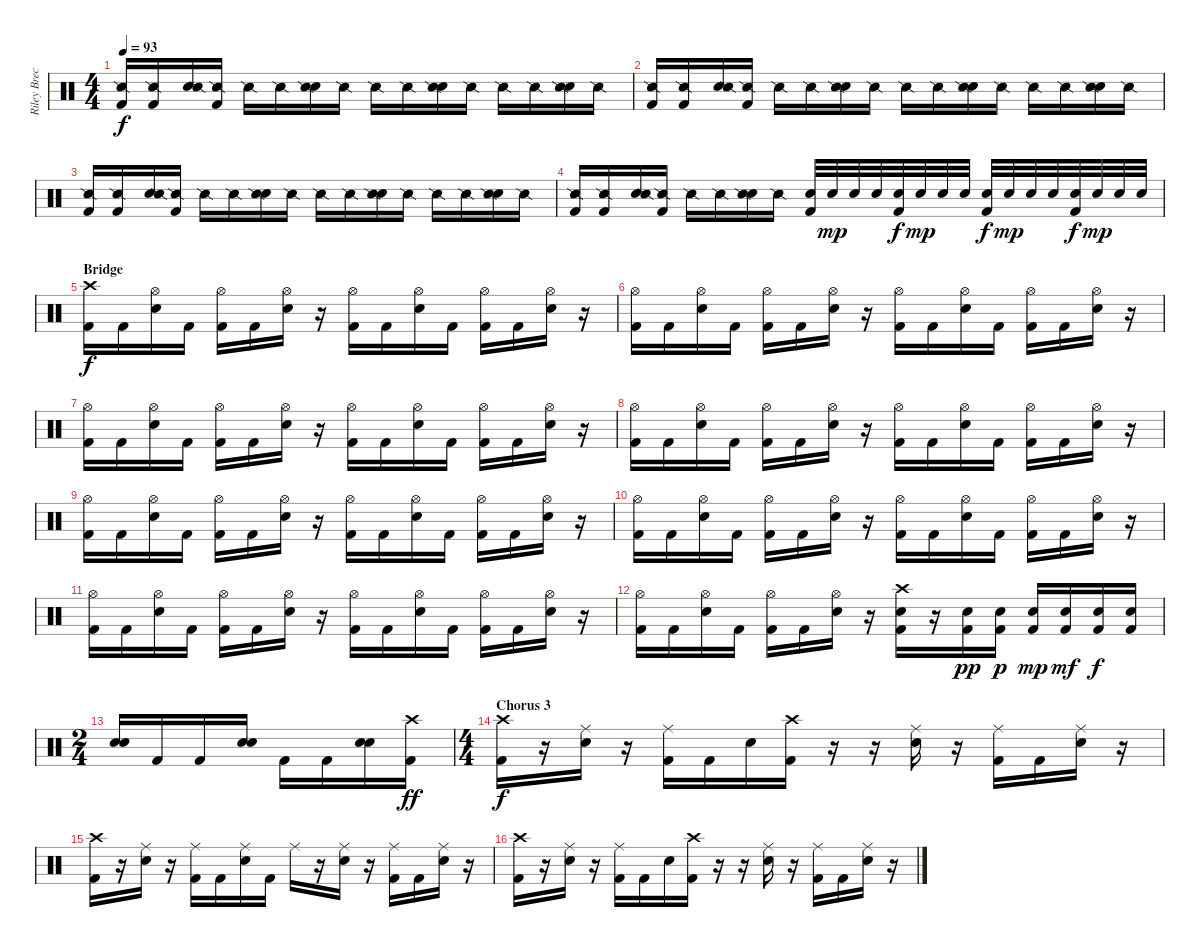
\track ("Riley Breckenridge" "Riley Brec") {instrument percussion}
\staff {score}
\articulation defaults
\ts (4 4)
\tempo 93
\clef neutral
\ks c
("Kick (hit) 2" "Snare (side stick) 2").16{dy f} ("Kick (hit) 2" "Snare (side stick) 2").16 ("Electric Snare (hit)" "Snare (side stick) 2").16 ("Kick (hit) 2" "Snare (side stick) 2").16 "Snare (side stick) 2".16 "Snare (side stick) 2".16 ("Electric Snare (hit)" "Snare (side stick) 2").16 "Snare (side stick) 2".16 "Snare (side stick) 2".16 "Snare (side stick) 2".16 ("Electric Snare (hit)" "Snare (side stick) 2").16 "Snare (side stick) 2".16 "Snare (side stick) 2".16 "Snare (side stick) 2".16 ("Electric Snare (hit)" "Snare (side stick) 2").16 "Snare (side stick) 2".16 |
("Kick (hit) 2" "Snare (side stick) 2").16 ("Kick (hit) 2" "Snare (side stick) 2").16 ("Electric Snare (hit)" "Snare (side stick) 2").16 ("Kick (hit) 2" "Snare (side stick) 2").16 "Snare (side stick) 2".16 "Snare (side stick) 2".16 ("Electric Snare (hit)" "Snare (side stick) 2").16 "Snare (side stick) 2".16 "Snare (side stick) 2".16 "Snare (side stick) 2".16 ("Electric Snare (hit)" "Snare (side stick) 2").16 "Snare (side stick) 2".16 "Snare (side stick) 2".16 "Snare (side stick) 2".16 ("Electric Snare (hit)" "Snare (side stick) 2").16 "Snare (side stick) 2".16 |
("Kick (hit) 2" "Snare (side stick) 2").16 ("Kick (hit) 2" "Snare (side stick) 2").16 ("Electric Snare (hit)" "Snare (side stick) 2").16 ("Kick (hit) 2" "Snare (side stick) 2").16 "Snare (side stick) 2".16 "Snare (side stick) 2".16 ("Electric Snare (hit)" "Snare (side stick) 2").16 "Snare (side stick) 2".16 "Snare (side stick) 2".16 "Snare (side stick) 2".16 ("Electric Snare (hit)" "Snare (side stick) 2").16 "Snare (side stick) 2".16 "Snare (side stick) 2".16 "Snare (side stick) 2".16 ("Electric Snare (hit)" "Snare (side stick) 2").16 "Snare (side stick) 2".16 |
("Kick (hit) 2" "Snare (side stick) 2").16 ("Kick (hit) 2" "Snare (side stick) 2").16 ("Electric Snare (hit)" "Snare (side stick) 2").16 ("Kick (hit) 2" "Snare (side stick) 2").16 "Snare (side stick) 2".16 "Snare (side stick) 2".16 ("Electric Snare (hit)" "Snare (side stick) 2").16 "Snare (side stick) 2".16 ("Electric Snare (hit)" "Kick (hit) 2").32 "Electric Snare (hit)".32{dy mp} "Electric Snare (hit)".32 "Electric Snare (hit)".32 ("Electric Snare (hit)" "Kick (hit) 2").32{dy f} "Electric Snare (hit)".32{dy mp} "Electric Snare (hit)".32 "Electric Snare (hit)".32 ("Electric Snare (hit)" "Kick (hit) 2").32{dy f} "Electric Snare (hit)".32{dy mp} "Electric Snare (hit)".32 "Electric Snare (hit)".32 ("Electric Snare (hit)" "Kick (hit) 2").32{dy f} "Electric Snare (hit)".32{dy mp} "Electric Snare (hit)".32 "Electric Snare (hit)".32 |
\section ("" "Bridge")
("Kick (hit) 2" "Crash high (hit)").16{dy f} "Kick (hit) 2".16 ("Electric Snare (hit)" "Hi-Hat (open)").16 "Kick (hit) 2".16 ("Kick (hit) 2" "Hi-Hat (open)").16 "Kick (hit) 2".16 ("Electric Snare (hit)" "Hi-Hat (open)").16 r.16 ("Kick (hit) 2" "Hi-Hat (open)").16 "Kick (hit) 2".16 ("Electric Snare (hit)" "Hi-Hat (open)").16 "Kick (hit) 2".16 ("Kick (hit) 2" "Hi-Hat (open)").16 "Kick (hit) 2".16 ("Electric Snare (hit)" "Hi-Hat (open)").16 r.16 |
("Kick (hit) 2" "Hi-Hat (open)").16 "Kick (hit) 2".16 ("Electric Snare (hit)" "Hi-Hat (open)").16 "Kick (hit) 2".16 ("Kick (hit) 2" "Hi-Hat (open)").16 "Kick (hit) 2".16 ("Electric Snare (hit)" "Hi-Hat (open)").16 r.16 ("Kick (hit) 2" "Hi-Hat (open)").16 "Kick (hit) 2".16 ("Electric Snare (hit)" "Hi-Hat (open)").16 "Kick (hit) 2".16 ("Kick (hit) 2" "Hi-Hat (open)").16 "Kick (hit) 2".16 ("Electric Snare (hit)" "Hi-Hat (open)").16 r.16 |
("Kick (hit) 2" "Hi-Hat (open)").16 "Kick (hit) 2".16 ("Electric Snare (hit)" "Hi-Hat (open)").16 "Kick (hit) 2".16 ("Kick (hit) 2" "Hi-Hat (open)").16 "Kick (hit) 2".16 ("Electric Snare (hit)" "Hi-Hat (open)").16 r.16 ("Kick (hit) 2" "Hi-Hat (open)").16 "Kick (hit) 2".16 ("Electric Snare (hit)" "Hi-Hat (open)").16 "Kick (hit) 2".16 ("Kick (hit) 2" "Hi-Hat (open)").16 "Kick (hit) 2".16 ("Electric Snare (hit)" "Hi-Hat (open)").16 r.16 |
("Kick (hit) 2" "Hi-Hat (open)").16 "Kick (hit) 2".16 ("Electric Snare (hit)" "Hi-Hat (open)").16 "Kick (hit) 2".16 ("Kick (hit) 2" "Hi-Hat (open)").16 "Kick (hit) 2".16 ("Electric Snare (hit)" "Hi-Hat (open)").16 r.16 ("Kick (hit) 2" "Hi-Hat (open)").16 "Kick (hit) 2".16 ("Electric Snare (hit)" "Hi-Hat (open)").16 "Kick (hit) 2".16 ("Kick (hit) 2" "Hi-Hat (open)").16 "Kick (hit) 2".16 ("Electric Snare (hit)" "Hi-Hat (open)").16 r.16 |
("Kick (hit) 2" "Hi-Hat (open)").16 "Kick (hit) 2".16 ("Electric Snare (hit)" "Hi-Hat (open)").16 "Kick (hit) 2".16 ("Kick (hit) 2" "Hi-Hat (open)").16 "Kick (hit) 2".16 ("Electric Snare (hit)" "Hi-Hat (open)").16 r.16 ("Kick (hit) 2" "Hi-Hat (open)").16 "Kick (hit) 2".16 ("Electric Snare (hit)" "Hi-Hat (open)").16 "Kick (hit) 2".16 ("Kick (hit) 2" "Hi-Hat (open)").16 "Kick (hit) 2".16 ("Electric Snare (hit)" "Hi-Hat (open)").16 r.16 |
("Kick (hit) 2" "Hi-Hat (open)").16 "Kick (hit) 2".16 ("Electric Snare (hit)" "Hi-Hat (open)").16 "Kick (hit) 2".16 ("Kick (hit) 2" "Hi-Hat (open)").16 "Kick (hit) 2".16 ("Electric Snare (hit)" "Hi-Hat (open)").16 r.16 ("Kick (hit) 2" "Hi-Hat (open)").16 "Kick (hit) 2".16 ("Electric Snare (hit)" "Hi-Hat (open)").16 "Kick (hit) 2".16 ("Kick (hit) 2" "Hi-Hat (open)").16 "Kick (hit) 2".16 ("Electric Snare (hit)" "Hi-Hat (open)").16 r.16 |
("Kick (hit) 2" "Hi-Hat (open)").16 "Kick (hit) 2".16 ("Electric Snare (hit)" "Hi-Hat (open)").16 "Kick (hit) 2".16 ("Kick (hit) 2" "Hi-Hat (open)").16 "Kick (hit) 2".16 ("Electric Snare (hit)" "Hi-Hat (open)").16 r.16 ("Kick (hit) 2" "Hi-Hat (open)").16 "Kick (hit) 2".16 ("Electric Snare (hit)" "Hi-Hat (open)").16 "Kick (hit) 2".16 ("Kick (hit) 2" "Hi-Hat (open)").16 "Kick (hit) 2".16 ("Electric Snare (hit)" "Hi-Hat (open)").16 r.16 |
("Kick (hit) 2" "Hi-Hat (open)").16 "Kick (hit) 2".16 ("Electric Snare (hit)" "Hi-Hat (open)").16 "Kick (hit) 2".16 ("Kick (hit) 2" "Hi-Hat (open)").16 "Kick (hit) 2".16 ("Electric Snare (hit)" "Hi-Hat (open)").16 r.16 ("Kick (hit) 2" "Electric Snare (hit)" "Crash high (hit)").16 r.16 ("Kick (hit) 2" "Electric Snare (hit)").16{dy pp} ("Kick (hit) 2" "Electric Snare (hit)").16{dy p} ("Kick (hit) 2" "Electric Snare (hit)").16{dy mp} ("Kick (hit) 2" "Electric Snare (hit)").16{dy mf} ("Kick (hit) 2" "Electric Snare (hit)").16{dy f} ("Kick (hit) 2" "Electric Snare (hit)").16 |
\ts (2 4)
("Electric Snare (hit)" "Electric Snare (hit)").16 "Kick (hit) 2".16 "Kick (hit) 2".16 ("Electric Snare (hit)" "Electric Snare (hit)").16 "Kick (hit) 2".16 "Kick (hit) 2".16 ("Electric Snare (hit)" "Electric Snare (hit)").16 ("Kick (hit) 2" "Crash high (hit)").16{dy ff} |
\ts (4 4)
\section ("" "Chorus 3")
("Kick (hit) 2" "Crash high (hit)").16{dy f} r.16 ("Electric Snare (hit)" "Ride (middle)").16 r.16 ("Kick (hit) 2" "Ride (middle)").16 "Kick (hit) 2".16 "Electric Snare (hit)".16 ("Kick (hit) 2" "Crash high (hit)").16 r.16 r.16 ("Electric Snare (hit)" "Ride (middle)").16 r.16 ("Kick (hit) 2" "Ride (middle)").16 "Kick (hit) 2".16 ("Electric Snare (hit)" "Ride (middle)").16 r.16 |
("Kick (hit) 2" "Crash high (hit)").16 r.16 ("Electric Snare (hit)" "Ride (middle)").16 r.16 ("Kick (hit) 2" "Ride (middle)").16 "Kick (hit) 2".16 ("Electric Snare (hit)" "Ride (middle)").16 "Kick (hit) 2".16 "Ride (middle)".16 r.16 ("Electric Snare (hit)" "Ride (middle)").16 r.16 ("Kick (hit) 2" "Ride (middle)").16 "Kick (hit) 2".16 ("Electric Snare (hit)" "Ride (middle)").16 r.16 |
("Kick (hit) 2" "Crash high (hit)").16 r.16 ("Electric Snare (hit)" "Ride (middle)").16 r.16 ("Kick (hit) 2" "Ride (middle)").16 "Kick (hit) 2".16 "Electric Snare (hit)".16 ("Kick (hit) 2" "Crash high (hit)").16 r.16 r.16 ("Electric Snare (hit)" "Ride (middle)").16 r.16 ("Kick (hit) 2" "Ride (middle)").16 "Kick (hit) 2".16 ("Electric Snare (hit)" "Ride (middle)").16 r.16
